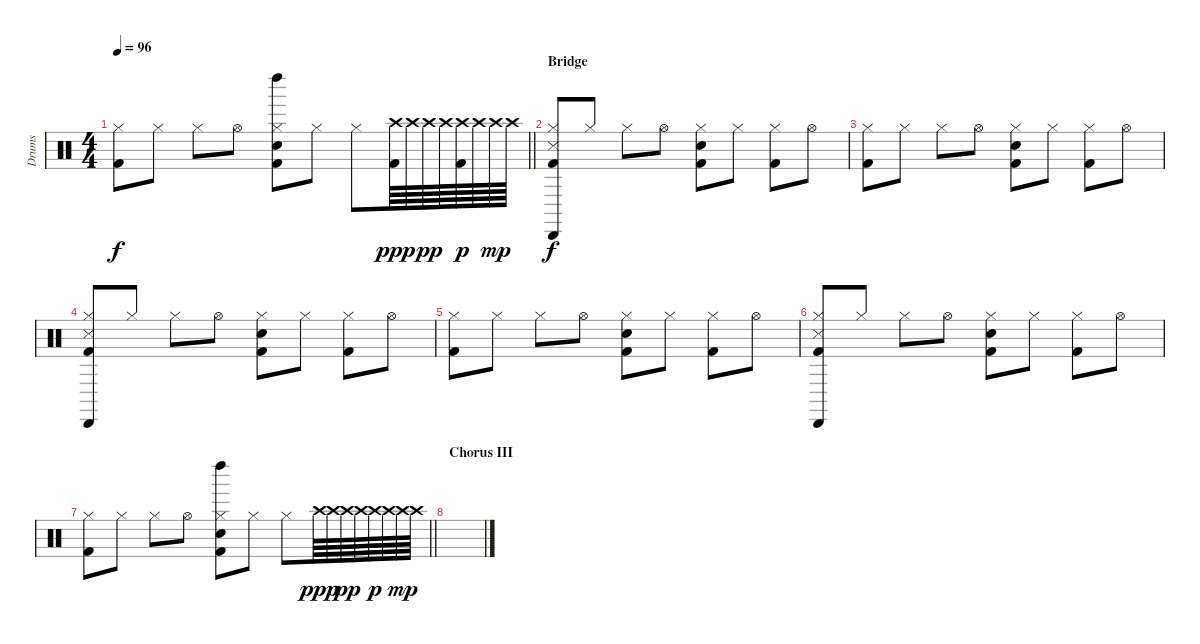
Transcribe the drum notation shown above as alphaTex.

\track ("Drums   " "Drums   ") {instrument percussion}
\staff {score}
\articulation defaults
\ts (4 4)
\tempo 96
\clef neutral
\barLineRight lightlight
\ks c
("Hi-Hat (closed)" "Kick (hit) 2").8{dy f} "Hi-Hat (closed)".8 "Hi-Hat (closed)".8 "Hi-Hat (open)".8 ("Hi-Hat (closed)" "Electric Snare (hit)" "Kick (hit) 2" "Left Maraca (hit)").8 "Hi-Hat (closed)".8 "Hi-Hat (closed)".8 ("Crash high (hit)" "Kick (hit) 2").64{dy ppp} "Crash high (hit)".64 "Crash high (hit)".64{dy pp} "Crash high (hit)".64 ("Crash high (hit)" "Kick (hit) 2").64{dy p} "Crash high (hit)".64 "Crash high (hit)".64{dy mp} "Crash high (hit)".64 |
\section ("" "Bridge")
("Snare (side stick) 3" "Hi-Hat (closed)" "Kick (hit) 2" "Cabasa (hit)").8{dy f} "Hi-Hat (closed)".8 "Hi-Hat (closed)".8 "Hi-Hat (open)".8 ("Hi-Hat (closed)" "Electric Snare (hit)" "Kick (hit) 2").8 "Hi-Hat (closed)".8 ("Hi-Hat (closed)" "Kick (hit) 2").8 "Hi-Hat (open)".8 |
("Hi-Hat (closed)" "Kick (hit) 2").8 "Hi-Hat (closed)".8 "Hi-Hat (closed)".8 "Hi-Hat (open)".8 ("Hi-Hat (closed)" "Electric Snare (hit)" "Kick (hit) 2").8 "Hi-Hat (closed)".8 ("Hi-Hat (closed)" "Kick (hit) 2").8 "Hi-Hat (open)".8 |
("Snare (side stick) 3" "Hi-Hat (closed)" "Kick (hit) 2" "Cabasa (hit)").8 "Hi-Hat (closed)".8 "Hi-Hat (closed)".8 "Hi-Hat (open)".8 ("Hi-Hat (closed)" "Electric Snare (hit)" "Kick (hit) 2").8 "Hi-Hat (closed)".8 ("Hi-Hat (closed)" "Kick (hit) 2").8 "Hi-Hat (open)".8 |
("Hi-Hat (closed)" "Kick (hit) 2").8 "Hi-Hat (closed)".8 "Hi-Hat (closed)".8 "Hi-Hat (open)".8 ("Hi-Hat (closed)" "Electric Snare (hit)" "Kick (hit) 2").8 "Hi-Hat (closed)".8 ("Hi-Hat (closed)" "Kick (hit) 2").8 "Hi-Hat (open)".8 |
("Snare (side stick) 3" "Hi-Hat (closed)" "Kick (hit) 2" "Cabasa (hit)").8 "Hi-Hat (closed)".8 "Hi-Hat (closed)".8 "Hi-Hat (open)".8 ("Hi-Hat (closed)" "Electric Snare (hit)" "Kick (hit) 2").8 "Hi-Hat (closed)".8 ("Hi-Hat (closed)" "Kick (hit) 2").8 "Hi-Hat (open)".8 |
\barLineRight lightlight
("Hi-Hat (closed)" "Kick (hit) 2").8 "Hi-Hat (closed)".8 "Hi-Hat (closed)".8 "Hi-Hat (open)".8 ("Hi-Hat (closed)" "Electric Snare (hit)" "Kick (hit) 2" "Left Maraca (hit)").8 "Hi-Hat (closed)".8 "Hi-Hat (closed)".8 "Crash high (hit)".64{dy ppp} "Crash high (hit)".64 "Crash high (hit)".64{dy pp} "Crash high (hit)".64 "Crash high (hit)".64{dy p} "Crash high (hit)".64 "Crash high (hit)".64{dy mp} "Crash high (hit)".64 |
\section ("" "Chorus III")
